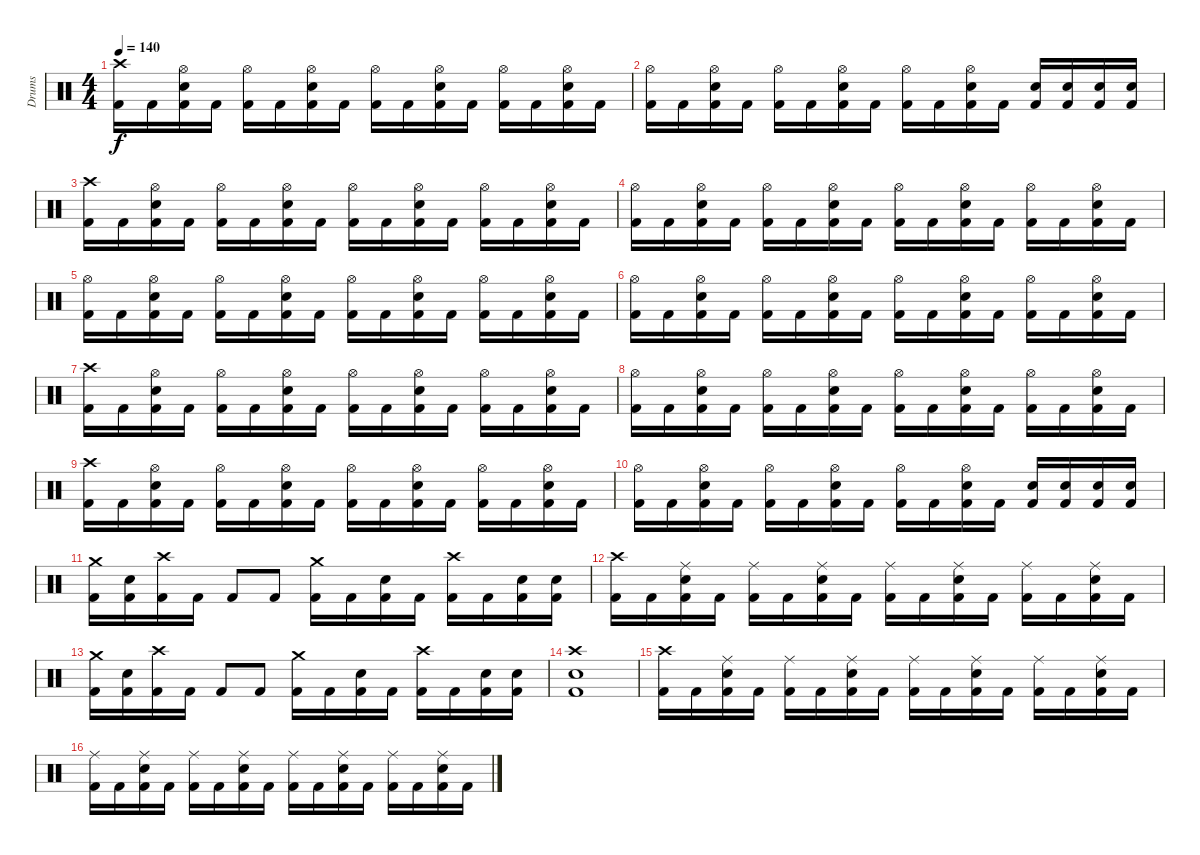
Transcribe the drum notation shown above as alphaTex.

\track ("Drums" "Drums") {instrument percussion}
\staff {score}
\articulation defaults
\ts (4 4)
\tempo 140
\clef neutral
\ks c
("Crash high (hit)" "Kick (hit) 2").16{dy f} "Kick (hit) 2".16 ("Hi-Hat (open)" "Electric Snare (hit)" "Kick (hit) 2").16 "Kick (hit) 2".16 ("Hi-Hat (open)" "Kick (hit) 2").16 "Kick (hit) 2".16 ("Hi-Hat (open)" "Electric Snare (hit)" "Kick (hit) 2").16 "Kick (hit) 2".16 ("Hi-Hat (open)" "Kick (hit) 2").16 "Kick (hit) 2".16 ("Hi-Hat (open)" "Electric Snare (hit)" "Kick (hit) 2").16 "Kick (hit) 2".16 ("Hi-Hat (open)" "Kick (hit) 2").16 "Kick (hit) 2".16 ("Hi-Hat (open)" "Electric Snare (hit)" "Kick (hit) 2").16 "Kick (hit) 2".16 |
("Hi-Hat (open)" "Kick (hit) 2").16 "Kick (hit) 2".16 ("Hi-Hat (open)" "Electric Snare (hit)" "Kick (hit) 2").16 "Kick (hit) 2".16 ("Hi-Hat (open)" "Kick (hit) 2").16 "Kick (hit) 2".16 ("Hi-Hat (open)" "Electric Snare (hit)" "Kick (hit) 2").16 "Kick (hit) 2".16 ("Hi-Hat (open)" "Kick (hit) 2").16 "Kick (hit) 2".16 ("Hi-Hat (open)" "Electric Snare (hit)" "Kick (hit) 2").16 "Kick (hit) 2".16 ("Electric Snare (hit)" "Kick (hit) 2").16 ("Electric Snare (hit)" "Kick (hit) 2").16 ("Electric Snare (hit)" "Kick (hit) 2").16 ("Electric Snare (hit)" "Kick (hit) 2").16 |
("Crash high (hit)" "Kick (hit) 2").16 "Kick (hit) 2".16 ("Hi-Hat (open)" "Electric Snare (hit)" "Kick (hit) 2").16 "Kick (hit) 2".16 ("Hi-Hat (open)" "Kick (hit) 2").16 "Kick (hit) 2".16 ("Hi-Hat (open)" "Electric Snare (hit)" "Kick (hit) 2").16 "Kick (hit) 2".16 ("Hi-Hat (open)" "Kick (hit) 2").16 "Kick (hit) 2".16 ("Hi-Hat (open)" "Electric Snare (hit)" "Kick (hit) 2").16 "Kick (hit) 2".16 ("Hi-Hat (open)" "Kick (hit) 2").16 "Kick (hit) 2".16 ("Hi-Hat (open)" "Electric Snare (hit)" "Kick (hit) 2").16 "Kick (hit) 2".16 |
("Hi-Hat (open)" "Kick (hit) 2").16 "Kick (hit) 2".16 ("Hi-Hat (open)" "Electric Snare (hit)" "Kick (hit) 2").16 "Kick (hit) 2".16 ("Hi-Hat (open)" "Kick (hit) 2").16 "Kick (hit) 2".16 ("Hi-Hat (open)" "Electric Snare (hit)" "Kick (hit) 2").16 "Kick (hit) 2".16 ("Hi-Hat (open)" "Kick (hit) 2").16 "Kick (hit) 2".16 ("Hi-Hat (open)" "Electric Snare (hit)" "Kick (hit) 2").16 "Kick (hit) 2".16 ("Hi-Hat (open)" "Kick (hit) 2").16 "Kick (hit) 2".16 ("Hi-Hat (open)" "Electric Snare (hit)" "Kick (hit) 2").16 "Kick (hit) 2".16 |
("Hi-Hat (open)" "Kick (hit) 2").16 "Kick (hit) 2".16 ("Hi-Hat (open)" "Electric Snare (hit)" "Kick (hit) 2").16 "Kick (hit) 2".16 ("Hi-Hat (open)" "Kick (hit) 2").16 "Kick (hit) 2".16 ("Hi-Hat (open)" "Electric Snare (hit)" "Kick (hit) 2").16 "Kick (hit) 2".16 ("Hi-Hat (open)" "Kick (hit) 2").16 "Kick (hit) 2".16 ("Hi-Hat (open)" "Electric Snare (hit)" "Kick (hit) 2").16 "Kick (hit) 2".16 ("Hi-Hat (open)" "Kick (hit) 2").16 "Kick (hit) 2".16 ("Hi-Hat (open)" "Electric Snare (hit)" "Kick (hit) 2").16 "Kick (hit) 2".16 |
("Hi-Hat (open)" "Kick (hit) 2").16 "Kick (hit) 2".16 ("Hi-Hat (open)" "Electric Snare (hit)" "Kick (hit) 2").16 "Kick (hit) 2".16 ("Hi-Hat (open)" "Kick (hit) 2").16 "Kick (hit) 2".16 ("Hi-Hat (open)" "Electric Snare (hit)" "Kick (hit) 2").16 "Kick (hit) 2".16 ("Hi-Hat (open)" "Kick (hit) 2").16 "Kick (hit) 2".16 ("Hi-Hat (open)" "Electric Snare (hit)" "Kick (hit) 2").16 "Kick (hit) 2".16 ("Hi-Hat (open)" "Kick (hit) 2").16 "Kick (hit) 2".16 ("Hi-Hat (open)" "Electric Snare (hit)" "Kick (hit) 2").16 "Kick (hit) 2".16 |
("Crash high (hit)" "Kick (hit) 2").16 "Kick (hit) 2".16 ("Hi-Hat (open)" "Electric Snare (hit)" "Kick (hit) 2").16 "Kick (hit) 2".16 ("Hi-Hat (open)" "Kick (hit) 2").16 "Kick (hit) 2".16 ("Hi-Hat (open)" "Electric Snare (hit)" "Kick (hit) 2").16 "Kick (hit) 2".16 ("Hi-Hat (open)" "Kick (hit) 2").16 "Kick (hit) 2".16 ("Hi-Hat (open)" "Electric Snare (hit)" "Kick (hit) 2").16 "Kick (hit) 2".16 ("Hi-Hat (open)" "Kick (hit) 2").16 "Kick (hit) 2".16 ("Hi-Hat (open)" "Electric Snare (hit)" "Kick (hit) 2").16 "Kick (hit) 2".16 |
("Hi-Hat (open)" "Kick (hit) 2").16 "Kick (hit) 2".16 ("Hi-Hat (open)" "Electric Snare (hit)" "Kick (hit) 2").16 "Kick (hit) 2".16 ("Hi-Hat (open)" "Kick (hit) 2").16 "Kick (hit) 2".16 ("Hi-Hat (open)" "Electric Snare (hit)" "Kick (hit) 2").16 "Kick (hit) 2".16 ("Hi-Hat (open)" "Kick (hit) 2").16 "Kick (hit) 2".16 ("Hi-Hat (open)" "Electric Snare (hit)" "Kick (hit) 2").16 "Kick (hit) 2".16 ("Hi-Hat (open)" "Kick (hit) 2").16 "Kick (hit) 2".16 ("Hi-Hat (open)" "Electric Snare (hit)" "Kick (hit) 2").16 "Kick (hit) 2".16 |
("Crash high (hit)" "Kick (hit) 2").16 "Kick (hit) 2".16 ("Hi-Hat (open)" "Electric Snare (hit)" "Kick (hit) 2").16 "Kick (hit) 2".16 ("Hi-Hat (open)" "Kick (hit) 2").16 "Kick (hit) 2".16 ("Hi-Hat (open)" "Electric Snare (hit)" "Kick (hit) 2").16 "Kick (hit) 2".16 ("Hi-Hat (open)" "Kick (hit) 2").16 "Kick (hit) 2".16 ("Hi-Hat (open)" "Electric Snare (hit)" "Kick (hit) 2").16 "Kick (hit) 2".16 ("Hi-Hat (open)" "Kick (hit) 2").16 "Kick (hit) 2".16 ("Hi-Hat (open)" "Electric Snare (hit)" "Kick (hit) 2").16 "Kick (hit) 2".16 |
("Hi-Hat (open)" "Kick (hit) 2").16 "Kick (hit) 2".16 ("Hi-Hat (open)" "Electric Snare (hit)" "Kick (hit) 2").16 "Kick (hit) 2".16 ("Hi-Hat (open)" "Kick (hit) 2").16 "Kick (hit) 2".16 ("Hi-Hat (open)" "Electric Snare (hit)" "Kick (hit) 2").16 "Kick (hit) 2".16 ("Hi-Hat (open)" "Kick (hit) 2").16 "Kick (hit) 2".16 ("Hi-Hat (open)" "Electric Snare (hit)" "Kick (hit) 2").16 "Kick (hit) 2".16 ("Electric Snare (hit)" "Kick (hit) 2").16 ("Electric Snare (hit)" "Kick (hit) 2").16 ("Electric Snare (hit)" "Kick (hit) 2").16 ("Electric Snare (hit)" "Kick (hit) 2").16 |
("Crash medium (hit)" "Kick (hit) 2").16 ("Electric Snare (hit)" "Kick (hit) 2").16 ("Crash high (hit)" "Kick (hit) 2").16 "Kick (hit) 2".16 "Kick (hit) 2".8 "Kick (hit) 2".8 ("Crash medium (hit)" "Kick (hit) 2").16 "Kick (hit) 2".16 ("Electric Snare (hit)" "Kick (hit) 2").16 "Kick (hit) 2".16 ("Crash high (hit)" "Kick (hit) 2").16 "Kick (hit) 2".16 ("Electric Snare (hit)" "Kick (hit) 2").16 ("Electric Snare (hit)" "Kick (hit) 2").16 |
("Crash high (hit)" "Kick (hit) 2").16 "Kick (hit) 2".16 ("Ride (middle)" "Electric Snare (hit)" "Kick (hit) 2").16 "Kick (hit) 2".16 ("Ride (middle)" "Kick (hit) 2").16 "Kick (hit) 2".16 ("Ride (middle)" "Electric Snare (hit)" "Kick (hit) 2").16 "Kick (hit) 2".16 ("Ride (middle)" "Kick (hit) 2").16 "Kick (hit) 2".16 ("Ride (middle)" "Electric Snare (hit)" "Kick (hit) 2").16 "Kick (hit) 2".16 ("Ride (middle)" "Kick (hit) 2").16 "Kick (hit) 2".16 ("Ride (middle)" "Electric Snare (hit)" "Kick (hit) 2").16 "Kick (hit) 2".16 |
("Crash medium (hit)" "Kick (hit) 2").16 ("Electric Snare (hit)" "Kick (hit) 2").16 ("Crash high (hit)" "Kick (hit) 2").16 "Kick (hit) 2".16 "Kick (hit) 2".8 "Kick (hit) 2".8 ("Crash medium (hit)" "Kick (hit) 2").16 "Kick (hit) 2".16 ("Electric Snare (hit)" "Kick (hit) 2").16 "Kick (hit) 2".16 ("Crash high (hit)" "Kick (hit) 2").16 "Kick (hit) 2".16 ("Electric Snare (hit)" "Kick (hit) 2").16 ("Electric Snare (hit)" "Kick (hit) 2").16 |
("Crash high (hit)" "Electric Snare (hit)" "Kick (hit) 2").1 |
("Crash high (hit)" "Kick (hit) 2").16 "Kick (hit) 2".16 ("Ride (middle)" "Electric Snare (hit)" "Kick (hit) 2").16 "Kick (hit) 2".16 ("Ride (middle)" "Kick (hit) 2").16 "Kick (hit) 2".16 ("Ride (middle)" "Electric Snare (hit)" "Kick (hit) 2").16 "Kick (hit) 2".16 ("Ride (middle)" "Kick (hit) 2").16 "Kick (hit) 2".16 ("Ride (middle)" "Electric Snare (hit)" "Kick (hit) 2").16 "Kick (hit) 2".16 ("Ride (middle)" "Kick (hit) 2").16 "Kick (hit) 2".16 ("Ride (middle)" "Electric Snare (hit)" "Kick (hit) 2").16 "Kick (hit) 2".16 |
("Ride (middle)" "Kick (hit) 2").16 "Kick (hit) 2".16 ("Ride (middle)" "Electric Snare (hit)" "Kick (hit) 2").16 "Kick (hit) 2".16 ("Ride (middle)" "Kick (hit) 2").16 "Kick (hit) 2".16 ("Ride (middle)" "Electric Snare (hit)" "Kick (hit) 2").16 "Kick (hit) 2".16 ("Ride (middle)" "Kick (hit) 2").16 "Kick (hit) 2".16 ("Ride (middle)" "Electric Snare (hit)" "Kick (hit) 2").16 "Kick (hit) 2".16 ("Ride (middle)" "Kick (hit) 2").16 "Kick (hit) 2".16 ("Ride (middle)" "Electric Snare (hit)" "Kick (hit) 2").16 "Kick (hit) 2".16
